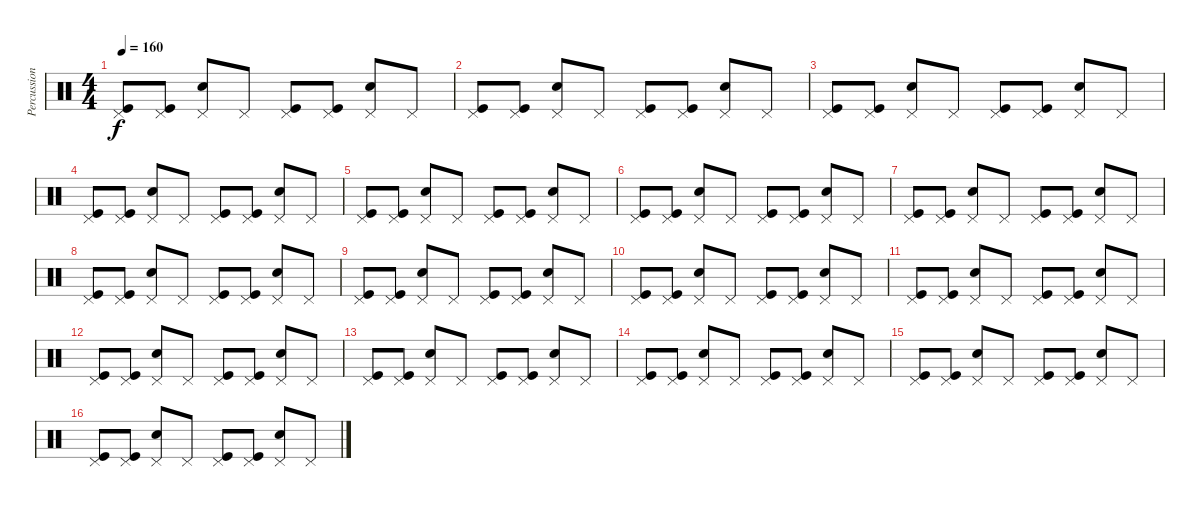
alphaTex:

\track ("Percussion" "Percussion") {instrument percussion}
\staff {score}
\articulation defaults
\ts (4 4)
\tempo 160
\clef neutral
\ks c
("Kick (hit)" "Pedal Hi-Hat (hit)").8{dy f} ("Kick (hit)" "Pedal Hi-Hat (hit)").8 ("Electric Snare (hit)" "Pedal Hi-Hat (hit)").8 "Pedal Hi-Hat (hit)".8 ("Kick (hit)" "Pedal Hi-Hat (hit)").8 ("Kick (hit)" "Pedal Hi-Hat (hit)").8 ("Electric Snare (hit)" "Pedal Hi-Hat (hit)").8 "Pedal Hi-Hat (hit)".8 |
("Kick (hit)" "Pedal Hi-Hat (hit)").8 ("Kick (hit)" "Pedal Hi-Hat (hit)").8 ("Electric Snare (hit)" "Pedal Hi-Hat (hit)").8 "Pedal Hi-Hat (hit)".8 ("Kick (hit)" "Pedal Hi-Hat (hit)").8 ("Kick (hit)" "Pedal Hi-Hat (hit)").8 ("Electric Snare (hit)" "Pedal Hi-Hat (hit)").8 "Pedal Hi-Hat (hit)".8 |
("Kick (hit)" "Pedal Hi-Hat (hit)").8 ("Kick (hit)" "Pedal Hi-Hat (hit)").8 ("Electric Snare (hit)" "Pedal Hi-Hat (hit)").8 "Pedal Hi-Hat (hit)".8 ("Kick (hit)" "Pedal Hi-Hat (hit)").8 ("Kick (hit)" "Pedal Hi-Hat (hit)").8 ("Electric Snare (hit)" "Pedal Hi-Hat (hit)").8 "Pedal Hi-Hat (hit)".8 |
("Kick (hit)" "Pedal Hi-Hat (hit)").8 ("Kick (hit)" "Pedal Hi-Hat (hit)").8 ("Electric Snare (hit)" "Pedal Hi-Hat (hit)").8 "Pedal Hi-Hat (hit)".8 ("Kick (hit)" "Pedal Hi-Hat (hit)").8 ("Kick (hit)" "Pedal Hi-Hat (hit)").8 ("Electric Snare (hit)" "Pedal Hi-Hat (hit)").8 "Pedal Hi-Hat (hit)".8 |
("Kick (hit)" "Pedal Hi-Hat (hit)").8 ("Kick (hit)" "Pedal Hi-Hat (hit)").8 ("Electric Snare (hit)" "Pedal Hi-Hat (hit)").8 "Pedal Hi-Hat (hit)".8 ("Kick (hit)" "Pedal Hi-Hat (hit)").8 ("Kick (hit)" "Pedal Hi-Hat (hit)").8 ("Electric Snare (hit)" "Pedal Hi-Hat (hit)").8 "Pedal Hi-Hat (hit)".8 |
("Kick (hit)" "Pedal Hi-Hat (hit)").8 ("Kick (hit)" "Pedal Hi-Hat (hit)").8 ("Electric Snare (hit)" "Pedal Hi-Hat (hit)").8 "Pedal Hi-Hat (hit)".8 ("Kick (hit)" "Pedal Hi-Hat (hit)").8 ("Kick (hit)" "Pedal Hi-Hat (hit)").8 ("Electric Snare (hit)" "Pedal Hi-Hat (hit)").8 "Pedal Hi-Hat (hit)".8 |
("Kick (hit)" "Pedal Hi-Hat (hit)").8 ("Kick (hit)" "Pedal Hi-Hat (hit)").8 ("Electric Snare (hit)" "Pedal Hi-Hat (hit)").8 "Pedal Hi-Hat (hit)".8 ("Kick (hit)" "Pedal Hi-Hat (hit)").8 ("Kick (hit)" "Pedal Hi-Hat (hit)").8 ("Electric Snare (hit)" "Pedal Hi-Hat (hit)").8 "Pedal Hi-Hat (hit)".8 |
("Kick (hit)" "Pedal Hi-Hat (hit)").8 ("Kick (hit)" "Pedal Hi-Hat (hit)").8 ("Electric Snare (hit)" "Pedal Hi-Hat (hit)").8 "Pedal Hi-Hat (hit)".8 ("Kick (hit)" "Pedal Hi-Hat (hit)").8 ("Kick (hit)" "Pedal Hi-Hat (hit)").8 ("Electric Snare (hit)" "Pedal Hi-Hat (hit)").8 "Pedal Hi-Hat (hit)".8 |
("Kick (hit)" "Pedal Hi-Hat (hit)").8 ("Kick (hit)" "Pedal Hi-Hat (hit)").8 ("Electric Snare (hit)" "Pedal Hi-Hat (hit)").8 "Pedal Hi-Hat (hit)".8 ("Kick (hit)" "Pedal Hi-Hat (hit)").8 ("Kick (hit)" "Pedal Hi-Hat (hit)").8 ("Electric Snare (hit)" "Pedal Hi-Hat (hit)").8 "Pedal Hi-Hat (hit)".8 |
("Kick (hit)" "Pedal Hi-Hat (hit)").8 ("Kick (hit)" "Pedal Hi-Hat (hit)").8 ("Electric Snare (hit)" "Pedal Hi-Hat (hit)").8 "Pedal Hi-Hat (hit)".8 ("Kick (hit)" "Pedal Hi-Hat (hit)").8 ("Kick (hit)" "Pedal Hi-Hat (hit)").8 ("Electric Snare (hit)" "Pedal Hi-Hat (hit)").8 "Pedal Hi-Hat (hit)".8 |
("Kick (hit)" "Pedal Hi-Hat (hit)").8 ("Kick (hit)" "Pedal Hi-Hat (hit)").8 ("Electric Snare (hit)" "Pedal Hi-Hat (hit)").8 "Pedal Hi-Hat (hit)".8 ("Kick (hit)" "Pedal Hi-Hat (hit)").8 ("Kick (hit)" "Pedal Hi-Hat (hit)").8 ("Electric Snare (hit)" "Pedal Hi-Hat (hit)").8 "Pedal Hi-Hat (hit)".8 |
("Kick (hit)" "Pedal Hi-Hat (hit)").8 ("Kick (hit)" "Pedal Hi-Hat (hit)").8 ("Electric Snare (hit)" "Pedal Hi-Hat (hit)").8 "Pedal Hi-Hat (hit)".8 ("Kick (hit)" "Pedal Hi-Hat (hit)").8 ("Kick (hit)" "Pedal Hi-Hat (hit)").8 ("Electric Snare (hit)" "Pedal Hi-Hat (hit)").8 "Pedal Hi-Hat (hit)".8 |
("Kick (hit)" "Pedal Hi-Hat (hit)").8 ("Kick (hit)" "Pedal Hi-Hat (hit)").8 ("Electric Snare (hit)" "Pedal Hi-Hat (hit)").8 "Pedal Hi-Hat (hit)".8 ("Kick (hit)" "Pedal Hi-Hat (hit)").8 ("Kick (hit)" "Pedal Hi-Hat (hit)").8 ("Electric Snare (hit)" "Pedal Hi-Hat (hit)").8 "Pedal Hi-Hat (hit)".8 |
("Kick (hit)" "Pedal Hi-Hat (hit)").8 ("Kick (hit)" "Pedal Hi-Hat (hit)").8 ("Electric Snare (hit)" "Pedal Hi-Hat (hit)").8 "Pedal Hi-Hat (hit)".8 ("Kick (hit)" "Pedal Hi-Hat (hit)").8 ("Kick (hit)" "Pedal Hi-Hat (hit)").8 ("Electric Snare (hit)" "Pedal Hi-Hat (hit)").8 "Pedal Hi-Hat (hit)".8 |
("Kick (hit)" "Pedal Hi-Hat (hit)").8 ("Kick (hit)" "Pedal Hi-Hat (hit)").8 ("Electric Snare (hit)" "Pedal Hi-Hat (hit)").8 "Pedal Hi-Hat (hit)".8 ("Kick (hit)" "Pedal Hi-Hat (hit)").8 ("Kick (hit)" "Pedal Hi-Hat (hit)").8 ("Electric Snare (hit)" "Pedal Hi-Hat (hit)").8 "Pedal Hi-Hat (hit)".8 |
("Kick (hit)" "Pedal Hi-Hat (hit)").8 ("Kick (hit)" "Pedal Hi-Hat (hit)").8 ("Electric Snare (hit)" "Pedal Hi-Hat (hit)").8 "Pedal Hi-Hat (hit)".8 ("Kick (hit)" "Pedal Hi-Hat (hit)").8 ("Kick (hit)" "Pedal Hi-Hat (hit)").8 ("Electric Snare (hit)" "Pedal Hi-Hat (hit)").8 "Pedal Hi-Hat (hit)".8
